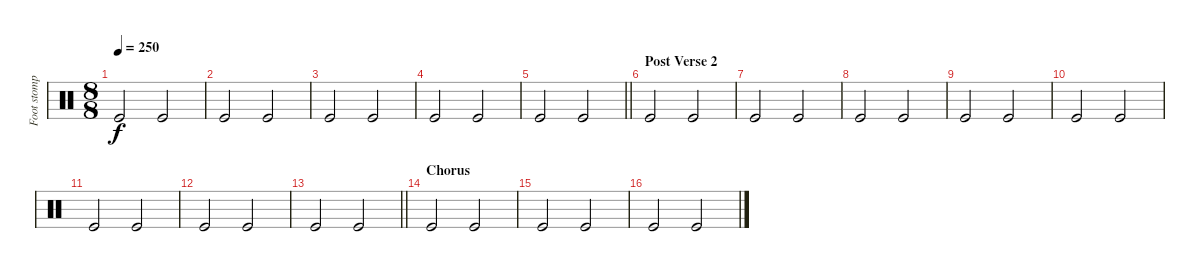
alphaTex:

\track ("Foot stomp!" "Foot stomp") {instrument percussion}
\staff {score}
\articulation defaults
\ts (8 8)
\tempo 250
\clef neutral
\ks c "Kick (hit)".2{dy f} "Kick (hit)".2
|
"Kick (hit)".2 "Kick (hit)".2 |
"Kick (hit)".2 "Kick (hit)".2 |
"Kick (hit)".2 "Kick (hit)".2 |
\barLineRight lightlight "Kick (hit)".2 "Kick (hit)".2
|
\section ("" "Post Verse 2")
"Kick (hit)".2 "Kick (hit)".2 |
"Kick (hit)".2 "Kick (hit)".2 |
"Kick (hit)".2 "Kick (hit)".2 |
"Kick (hit)".2 "Kick (hit)".2 |
"Kick (hit)".2 "Kick (hit)".2 |
"Kick (hit)".2 "Kick (hit)".2 |
"Kick (hit)".2 "Kick (hit)".2 |
\barLineRight lightlight "Kick (hit)".2 "Kick (hit)".2
|
\section ("" "Chorus")
"Kick (hit)".2 "Kick (hit)".2 |
"Kick (hit)".2 "Kick (hit)".2 |
"Kick (hit)".2 "Kick (hit)".2
